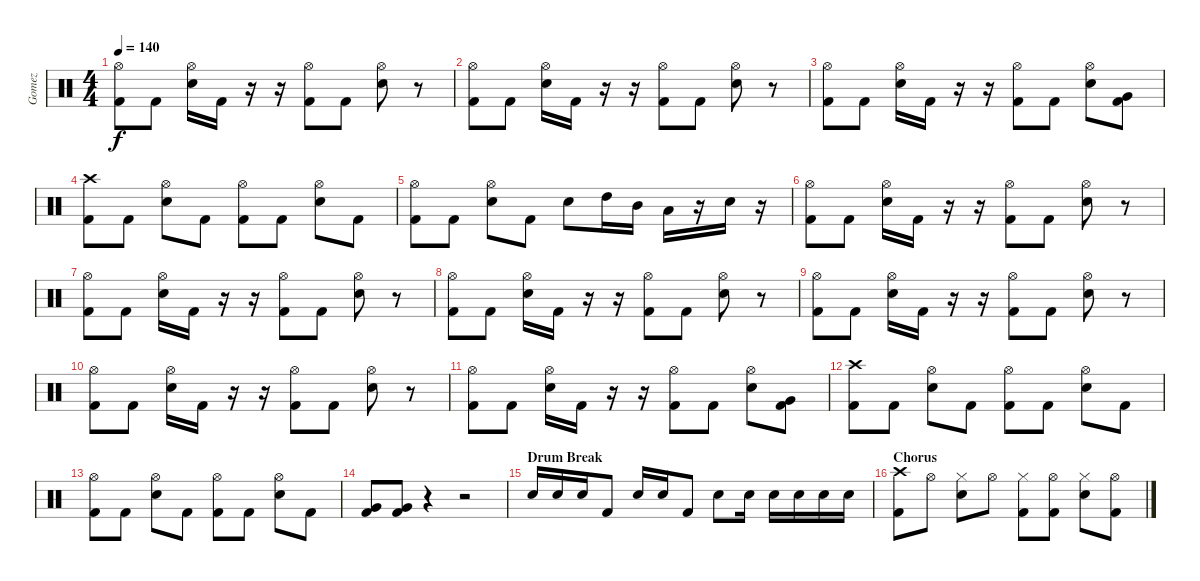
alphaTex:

\track ("Gomez" "Gomez") {instrument percussion}
\staff {score}
\articulation defaults
\ts (4 4)
\tempo 140
\clef neutral
\ks c
("Hi-Hat (open)" "Kick (hit) 2").8{dy f} "Kick (hit) 2".8 ("Hi-Hat (open)" "Electric Snare (hit)").16 "Kick (hit) 2".16 r.16 r.16 ("Hi-Hat (open)" "Kick (hit) 2").8 "Kick (hit) 2".8 ("Hi-Hat (open)" "Electric Snare (hit)").8 r.8 |
("Hi-Hat (open)" "Kick (hit) 2").8 "Kick (hit) 2".8 ("Hi-Hat (open)" "Electric Snare (hit)").16 "Kick (hit) 2".16 r.16 r.16 ("Hi-Hat (open)" "Kick (hit) 2").8 "Kick (hit) 2".8 ("Hi-Hat (open)" "Electric Snare (hit)").8 r.8 |
("Hi-Hat (open)" "Kick (hit) 2").8 "Kick (hit) 2".8 ("Hi-Hat (open)" "Electric Snare (hit)").16 "Kick (hit) 2".16 r.16 r.16 ("Hi-Hat (open)" "Kick (hit) 2").8 "Kick (hit) 2".8 ("Hi-Hat (open)" "Electric Snare (hit)").8 ("Very Low Tom (hit)" "Kick (hit) 2").8 |
("Crash high (hit)" "Kick (hit) 2").8 "Kick (hit) 2".8 ("Hi-Hat (open)" "Electric Snare (hit)").8 "Kick (hit) 2".8 ("Hi-Hat (open)" "Kick (hit) 2").8 "Kick (hit) 2".8 ("Hi-Hat (open)" "Electric Snare (hit)").8 "Kick (hit) 2".8 |
("Hi-Hat (open)" "Kick (hit) 2").8 "Kick (hit) 2".8 ("Hi-Hat (open)" "Electric Snare (hit)").8 "Kick (hit) 2".8 "Electric Snare (hit)".8{volume 16} "High Tom (hit)".16 "Mid Tom (hit)".16 "Low Tom (hit)".16 r.16 "Electric Snare (hit)".16 r.16 |
("Hi-Hat (open)" "Kick (hit) 2").8{volume 13} "Kick (hit) 2".8 ("Hi-Hat (open)" "Electric Snare (hit)").16 "Kick (hit) 2".16 r.16 r.16 ("Hi-Hat (open)" "Kick (hit) 2").8 "Kick (hit) 2".8 ("Hi-Hat (open)" "Electric Snare (hit)").8 r.8 |
("Hi-Hat (open)" "Kick (hit) 2").8 "Kick (hit) 2".8 ("Hi-Hat (open)" "Electric Snare (hit)").16 "Kick (hit) 2".16 r.16 r.16 ("Hi-Hat (open)" "Kick (hit) 2").8 "Kick (hit) 2".8 ("Hi-Hat (open)" "Electric Snare (hit)").8 r.8 |
("Hi-Hat (open)" "Kick (hit) 2").8 "Kick (hit) 2".8 ("Hi-Hat (open)" "Electric Snare (hit)").16 "Kick (hit) 2".16 r.16 r.16 ("Hi-Hat (open)" "Kick (hit) 2").8 "Kick (hit) 2".8 ("Hi-Hat (open)" "Electric Snare (hit)").8 r.8 |
("Hi-Hat (open)" "Kick (hit) 2").8 "Kick (hit) 2".8 ("Hi-Hat (open)" "Electric Snare (hit)").16 "Kick (hit) 2".16 r.16 r.16 ("Hi-Hat (open)" "Kick (hit) 2").8 "Kick (hit) 2".8 ("Hi-Hat (open)" "Electric Snare (hit)").8 r.8 |
("Hi-Hat (open)" "Kick (hit) 2").8 "Kick (hit) 2".8 ("Hi-Hat (open)" "Electric Snare (hit)").16 "Kick (hit) 2".16 r.16 r.16 ("Hi-Hat (open)" "Kick (hit) 2").8 "Kick (hit) 2".8 ("Hi-Hat (open)" "Electric Snare (hit)").8 r.8 |
("Hi-Hat (open)" "Kick (hit) 2").8 "Kick (hit) 2".8 ("Hi-Hat (open)" "Electric Snare (hit)").16 "Kick (hit) 2".16 r.16 r.16 ("Hi-Hat (open)" "Kick (hit) 2").8 "Kick (hit) 2".8 ("Hi-Hat (open)" "Electric Snare (hit)").8 ("Very Low Tom (hit)" "Kick (hit) 2").8 |
("Crash high (hit)" "Kick (hit) 2").8 "Kick (hit) 2".8 ("Hi-Hat (open)" "Electric Snare (hit)").8 "Kick (hit) 2".8 ("Hi-Hat (open)" "Kick (hit) 2").8 "Kick (hit) 2".8 ("Hi-Hat (open)" "Electric Snare (hit)").8 "Kick (hit) 2".8 |
("Hi-Hat (open)" "Kick (hit) 2").8 "Kick (hit) 2".8 ("Hi-Hat (open)" "Electric Snare (hit)").8 "Kick (hit) 2".8 ("Hi-Hat (open)" "Kick (hit) 2").8 "Kick (hit) 2".8 ("Hi-Hat (open)" "Electric Snare (hit)").8 "Kick (hit) 2".8 |
("Very Low Tom (hit)" "Kick (hit) 2").8{volume 16} ("Very Low Tom (hit)" "Kick (hit) 2").8 r.4 r.2 |
\section ("" "Drum Break")
"Electric Snare (hit)".16{volume 16} "Electric Snare (hit)".16 "Electric Snare (hit)".16 "Kick (hit) 2".8 "Electric Snare (hit)".16 "Electric Snare (hit)".16 "Kick (hit) 2".8 "Electric Snare (hit)".8 "Electric Snare (hit)".16 "Electric Snare (hit)".16 "Electric Snare (hit)".16 "Electric Snare (hit)".16 "Electric Snare (hit)".16 |
\section ("" "Chorus")
("Crash high (hit)" "Kick (hit) 2").8{volume 13} "Hi-Hat (open)".8 ("Hi-Hat (closed)" "Electric Snare (hit)").8 "Hi-Hat (open)".8 ("Hi-Hat (closed)" "Kick (hit) 2").8 ("Hi-Hat (open)" "Kick (hit) 2").8 ("Hi-Hat (closed)" "Electric Snare (hit)").8 ("Hi-Hat (open)" "Kick (hit) 2").8
